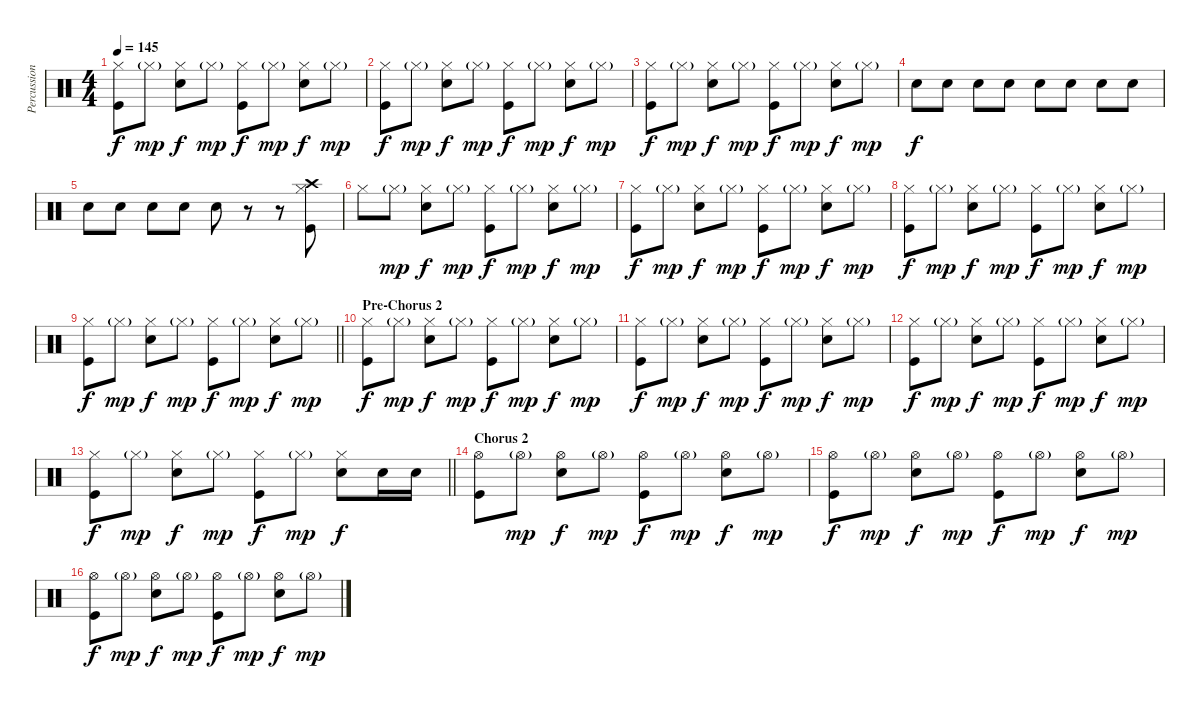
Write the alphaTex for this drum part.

\track ("Percussion" "Percussion") {instrument percussion}
\staff {score}
\articulation defaults
\ts (4 4)
\tempo 145
\clef neutral
\ks c
("Hi-Hat (closed)" "Kick (hit)").8{dy f} "Hi-Hat (closed)"{g}.8{dy mp} ("Hi-Hat (closed)" "Snare (hit) 2").8{dy f} "Hi-Hat (closed)"{g}.8{dy mp} ("Hi-Hat (closed)" "Kick (hit)").8{dy f} "Hi-Hat (closed)"{g}.8{dy mp} ("Hi-Hat (closed)" "Snare (hit) 2").8{dy f} "Hi-Hat (closed)"{g}.8{dy mp} |
("Hi-Hat (closed)" "Kick (hit)").8{dy f} "Hi-Hat (closed)"{g}.8{dy mp} ("Hi-Hat (closed)" "Snare (hit) 2").8{dy f} "Hi-Hat (closed)"{g}.8{dy mp} ("Hi-Hat (closed)" "Kick (hit)").8{dy f} "Hi-Hat (closed)"{g}.8{dy mp} ("Hi-Hat (closed)" "Snare (hit) 2").8{dy f} "Hi-Hat (closed)"{g}.8{dy mp} |
("Hi-Hat (closed)" "Kick (hit)").8{dy f} "Hi-Hat (closed)"{g}.8{dy mp} ("Hi-Hat (closed)" "Snare (hit) 2").8{dy f} "Hi-Hat (closed)"{g}.8{dy mp} ("Hi-Hat (closed)" "Kick (hit)").8{dy f} "Hi-Hat (closed)"{g}.8{dy mp} ("Hi-Hat (closed)" "Snare (hit) 2").8{dy f} "Hi-Hat (closed)"{g}.8{dy mp} |
"Snare (hit) 2".8{dy f} "Snare (hit) 2".8 "Snare (hit) 2".8 "Snare (hit) 2".8 "Snare (hit) 2".8 "Snare (hit) 2".8 "Snare (hit) 2".8 "Snare (hit) 2".8 |
"Snare (hit) 2".8 "Snare (hit) 2".8 "Snare (hit) 2".8 "Snare (hit) 2".8 "Snare (hit) 2".8 r.8 r.8 ("Hi-Hat (closed)" "Kick (hit)" "Crash high (hit)").8 |
"Hi-Hat (closed)".8 "Hi-Hat (closed)"{g}.8{dy mp} ("Hi-Hat (closed)" "Snare (hit) 2").8{dy f} "Hi-Hat (closed)"{g}.8{dy mp} ("Hi-Hat (closed)" "Kick (hit)").8{dy f} "Hi-Hat (closed)"{g}.8{dy mp} ("Hi-Hat (closed)" "Snare (hit) 2").8{dy f} "Hi-Hat (closed)"{g}.8{dy mp} |
("Hi-Hat (closed)" "Kick (hit)").8{dy f} "Hi-Hat (closed)"{g}.8{dy mp} ("Hi-Hat (closed)" "Snare (hit) 2").8{dy f} "Hi-Hat (closed)"{g}.8{dy mp} ("Hi-Hat (closed)" "Kick (hit)").8{dy f} "Hi-Hat (closed)"{g}.8{dy mp} ("Hi-Hat (closed)" "Snare (hit) 2").8{dy f} "Hi-Hat (closed)"{g}.8{dy mp} |
("Hi-Hat (closed)" "Kick (hit)").8{dy f} "Hi-Hat (closed)"{g}.8{dy mp} ("Hi-Hat (closed)" "Snare (hit) 2").8{dy f} "Hi-Hat (closed)"{g}.8{dy mp} ("Hi-Hat (closed)" "Kick (hit)").8{dy f} "Hi-Hat (closed)"{g}.8{dy mp} ("Hi-Hat (closed)" "Snare (hit) 2").8{dy f} "Hi-Hat (closed)"{g}.8{dy mp} |
\barLineRight lightlight
("Hi-Hat (closed)" "Kick (hit)").8{dy f} "Hi-Hat (closed)"{g}.8{dy mp} ("Hi-Hat (closed)" "Snare (hit) 2").8{dy f} "Hi-Hat (closed)"{g}.8{dy mp} ("Hi-Hat (closed)" "Kick (hit)").8{dy f} "Hi-Hat (closed)"{g}.8{dy mp} ("Hi-Hat (closed)" "Snare (hit) 2").8{dy f} "Hi-Hat (closed)"{g}.8{dy mp} |
\section ("" "Pre-Chorus 2")
("Hi-Hat (closed)" "Kick (hit)").8{dy f} "Hi-Hat (closed)"{g}.8{dy mp} ("Hi-Hat (closed)" "Snare (hit) 2").8{dy f} "Hi-Hat (closed)"{g}.8{dy mp} ("Hi-Hat (closed)" "Kick (hit)").8{dy f} "Hi-Hat (closed)"{g}.8{dy mp} ("Hi-Hat (closed)" "Snare (hit) 2").8{dy f} "Hi-Hat (closed)"{g}.8{dy mp} |
("Hi-Hat (closed)" "Kick (hit)").8{dy f} "Hi-Hat (closed)"{g}.8{dy mp} ("Hi-Hat (closed)" "Snare (hit) 2").8{dy f} "Hi-Hat (closed)"{g}.8{dy mp} ("Hi-Hat (closed)" "Kick (hit)").8{dy f} "Hi-Hat (closed)"{g}.8{dy mp} ("Hi-Hat (closed)" "Snare (hit) 2").8{dy f} "Hi-Hat (closed)"{g}.8{dy mp} |
("Hi-Hat (closed)" "Kick (hit)").8{dy f} "Hi-Hat (closed)"{g}.8{dy mp} ("Hi-Hat (closed)" "Snare (hit) 2").8{dy f} "Hi-Hat (closed)"{g}.8{dy mp} ("Hi-Hat (closed)" "Kick (hit)").8{dy f} "Hi-Hat (closed)"{g}.8{dy mp} ("Hi-Hat (closed)" "Snare (hit) 2").8{dy f} "Hi-Hat (closed)"{g}.8{dy mp} |
\barLineRight lightlight
("Hi-Hat (closed)" "Kick (hit)").8{dy f} "Hi-Hat (closed)"{g}.8{dy mp} ("Hi-Hat (closed)" "Snare (hit) 2").8{dy f} "Hi-Hat (closed)"{g}.8{dy mp} ("Hi-Hat (closed)" "Kick (hit)").8{dy f} "Hi-Hat (closed)"{g}.8{dy mp} ("Hi-Hat (closed)" "Snare (hit) 2").8{dy f} "Snare (hit) 2".16 "Snare (hit) 2".16 |
\section ("" "Chorus 2")
("Hi-Hat (open)" "Kick (hit)").8 "Hi-Hat (open)"{g}.8{dy mp} ("Hi-Hat (open)" "Snare (hit) 2").8{dy f} "Hi-Hat (open)"{g}.8{dy mp} ("Hi-Hat (open)" "Kick (hit)").8{dy f} "Hi-Hat (open)"{g}.8{dy mp} ("Hi-Hat (open)" "Snare (hit) 2").8{dy f} "Hi-Hat (open)"{g}.8{dy mp} |
("Hi-Hat (open)" "Kick (hit)").8{dy f} "Hi-Hat (open)"{g}.8{dy mp} ("Hi-Hat (open)" "Snare (hit) 2").8{dy f} "Hi-Hat (open)"{g}.8{dy mp} ("Hi-Hat (open)" "Kick (hit)").8{dy f} "Hi-Hat (open)"{g}.8{dy mp} ("Hi-Hat (open)" "Snare (hit) 2").8{dy f} "Hi-Hat (open)"{g}.8{dy mp} |
("Hi-Hat (open)" "Kick (hit)").8{dy f} "Hi-Hat (open)"{g}.8{dy mp} ("Hi-Hat (open)" "Snare (hit) 2").8{dy f} "Hi-Hat (open)"{g}.8{dy mp} ("Hi-Hat (open)" "Kick (hit)").8{dy f} "Hi-Hat (open)"{g}.8{dy mp} ("Hi-Hat (open)" "Snare (hit) 2").8{dy f} "Hi-Hat (open)"{g}.8{dy mp}
